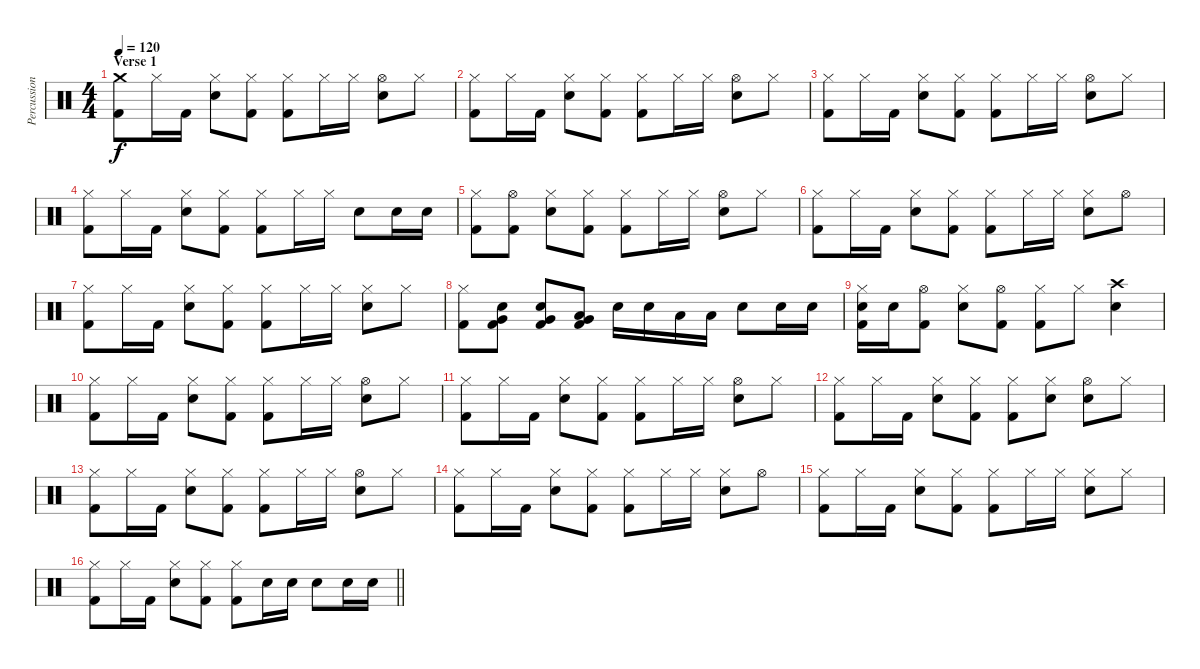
\track ("Percussion" "Percussion") {instrument percussion}
\staff {score}
\articulation defaults
\ts (4 4)
\section ("" "Verse 1")
\tempo 120
\clef neutral
\ks c
("Crash medium (hit)" "Kick (hit) 2").8{dy f} "Hi-Hat (closed)".16 "Kick (hit) 2".16 ("Hi-Hat (closed)" "Electric Snare (hit)").8 ("Hi-Hat (closed)" "Kick (hit) 2").8 ("Hi-Hat (closed)" "Kick (hit) 2").8 "Hi-Hat (closed)".16 "Hi-Hat (closed)".16 ("Hi-Hat (open)" "Electric Snare (hit)").8 "Hi-Hat (closed)".8 |
("Hi-Hat (closed)" "Kick (hit) 2").8 "Hi-Hat (closed)".16 "Kick (hit) 2".16 ("Hi-Hat (closed)" "Electric Snare (hit)").8 ("Hi-Hat (closed)" "Kick (hit) 2").8 ("Hi-Hat (closed)" "Kick (hit) 2").8 "Hi-Hat (closed)".16 "Hi-Hat (closed)".16 ("Hi-Hat (open)" "Electric Snare (hit)").8 "Hi-Hat (closed)".8 |
("Hi-Hat (closed)" "Kick (hit) 2").8 "Hi-Hat (closed)".16 "Kick (hit) 2".16 ("Hi-Hat (closed)" "Electric Snare (hit)").8 ("Hi-Hat (closed)" "Kick (hit) 2").8 ("Hi-Hat (closed)" "Kick (hit) 2").8 "Hi-Hat (closed)".16 "Hi-Hat (closed)".16 ("Hi-Hat (open)" "Electric Snare (hit)").8 "Hi-Hat (closed)".8 |
("Hi-Hat (closed)" "Kick (hit) 2").8 "Hi-Hat (closed)".16 "Kick (hit) 2".16 ("Hi-Hat (closed)" "Electric Snare (hit)").8 ("Hi-Hat (closed)" "Kick (hit) 2").8 ("Hi-Hat (closed)" "Kick (hit) 2").8 "Hi-Hat (closed)".16 "Hi-Hat (closed)".16 "Electric Snare (hit)".8 "Electric Snare (hit)".16 "Electric Snare (hit)".16 |
("Hi-Hat (closed)" "Kick (hit) 2").8 ("Hi-Hat (open)" "Kick (hit) 2").8 ("Hi-Hat (closed)" "Electric Snare (hit)").8 ("Hi-Hat (closed)" "Kick (hit) 2").8 ("Hi-Hat (closed)" "Kick (hit) 2").8 "Hi-Hat (closed)".16 "Hi-Hat (closed)".16 ("Hi-Hat (open)" "Electric Snare (hit)").8 "Hi-Hat (closed)".8 |
("Hi-Hat (closed)" "Kick (hit) 2").8 "Hi-Hat (closed)".16 "Kick (hit) 2".16 ("Hi-Hat (closed)" "Electric Snare (hit)").8 ("Hi-Hat (closed)" "Kick (hit) 2").8 ("Hi-Hat (closed)" "Kick (hit) 2").8 "Hi-Hat (closed)".16 "Hi-Hat (closed)".16 ("Hi-Hat (closed)" "Electric Snare (hit)").8 "Hi-Hat (open)".8 |
("Hi-Hat (closed)" "Kick (hit) 2").8 "Hi-Hat (closed)".16 "Kick (hit) 2".16 ("Hi-Hat (closed)" "Electric Snare (hit)").8 ("Hi-Hat (closed)" "Kick (hit) 2").8 ("Hi-Hat (closed)" "Kick (hit) 2").8 "Hi-Hat (closed)".16 "Hi-Hat (closed)".16 ("Hi-Hat (closed)" "Electric Snare (hit)").8 "Hi-Hat (closed)".8 |
("Hi-Hat (closed)" "Kick (hit) 2").8 ("Very Low Tom (hit)" "Electric Snare (hit)" "Kick (hit) 2").8 ("Very Low Tom (hit)" "Electric Snare (hit)" "Kick (hit) 2").8 ("Very Low Tom (hit)" "Low Tom (hit)" "Kick (hit) 2").8 "Electric Snare (hit)".16 "Electric Snare (hit)".16 "Low Tom (hit)".16 "Low Tom (hit)".16 "Electric Snare (hit)".8 "Electric Snare (hit)".16 "Electric Snare (hit)".16 |
("Hi-Hat (closed)" "Electric Snare (hit)" "Kick (hit) 2").16 "Electric Snare (hit)".16 ("Hi-Hat (open)" "Kick (hit) 2").8 ("Hi-Hat (closed)" "Electric Snare (hit)").8 ("Hi-Hat (open)" "Kick (hit) 2").8 ("Hi-Hat (closed)" "Kick (hit) 2").8 "Hi-Hat (closed)".8 ("Crash high (hit)" "Electric Snare (hit)").4 |
("Hi-Hat (closed)" "Kick (hit) 2").8 "Hi-Hat (closed)".16 "Kick (hit) 2".16 ("Hi-Hat (closed)" "Electric Snare (hit)").8 ("Hi-Hat (closed)" "Kick (hit) 2").8 ("Hi-Hat (closed)" "Kick (hit) 2").8 "Hi-Hat (closed)".16 "Hi-Hat (closed)".16 ("Hi-Hat (open)" "Electric Snare (hit)").8 "Hi-Hat (closed)".8 |
("Hi-Hat (closed)" "Kick (hit) 2").8 "Hi-Hat (closed)".16 "Kick (hit) 2".16 ("Hi-Hat (closed)" "Electric Snare (hit)").8 ("Hi-Hat (closed)" "Kick (hit) 2").8 ("Hi-Hat (closed)" "Kick (hit) 2").8 "Hi-Hat (closed)".16 "Hi-Hat (closed)".16 ("Hi-Hat (open)" "Electric Snare (hit)").8 "Hi-Hat (closed)".8 |
("Hi-Hat (closed)" "Kick (hit) 2").8 "Hi-Hat (closed)".16 "Kick (hit) 2".16 ("Hi-Hat (closed)" "Electric Snare (hit)").8 ("Hi-Hat (closed)" "Kick (hit) 2").8 ("Hi-Hat (closed)" "Kick (hit) 2").8 ("Hi-Hat (closed)" "Electric Snare (hit)").8 ("Hi-Hat (open)" "Electric Snare (hit)").8 "Hi-Hat (closed)".8 |
("Hi-Hat (closed)" "Kick (hit) 2").8 "Hi-Hat (closed)".16 "Kick (hit) 2".16 ("Hi-Hat (closed)" "Electric Snare (hit)").8 ("Hi-Hat (closed)" "Kick (hit) 2").8 ("Hi-Hat (closed)" "Kick (hit) 2").8 "Hi-Hat (closed)".16 "Hi-Hat (closed)".16 ("Hi-Hat (open)" "Electric Snare (hit)").8 "Hi-Hat (closed)".8 |
("Hi-Hat (closed)" "Kick (hit) 2").8 "Hi-Hat (closed)".16 "Kick (hit) 2".16 ("Hi-Hat (closed)" "Electric Snare (hit)").8 ("Hi-Hat (closed)" "Kick (hit) 2").8 ("Hi-Hat (closed)" "Kick (hit) 2").8 "Hi-Hat (closed)".16 "Hi-Hat (closed)".16 ("Hi-Hat (closed)" "Electric Snare (hit)").8 "Hi-Hat (open)".8 |
("Hi-Hat (closed)" "Kick (hit) 2").8 "Hi-Hat (closed)".16 "Kick (hit) 2".16 ("Hi-Hat (closed)" "Electric Snare (hit)").8 ("Hi-Hat (closed)" "Kick (hit) 2").8 ("Hi-Hat (closed)" "Kick (hit) 2").8 "Hi-Hat (closed)".16 "Hi-Hat (closed)".16 ("Hi-Hat (closed)" "Electric Snare (hit)").8 "Hi-Hat (closed)".8 |
\barLineRight lightlight
("Hi-Hat (closed)" "Kick (hit) 2").8 "Hi-Hat (closed)".16 "Kick (hit) 2".16 ("Hi-Hat (closed)" "Electric Snare (hit)").8 ("Hi-Hat (closed)" "Kick (hit) 2").8 ("Hi-Hat (closed)" "Kick (hit) 2").8 "Electric Snare (hit)".16 "Electric Snare (hit)".16 "Electric Snare (hit)".8 "Electric Snare (hit)".16 "Electric Snare (hit)".16
